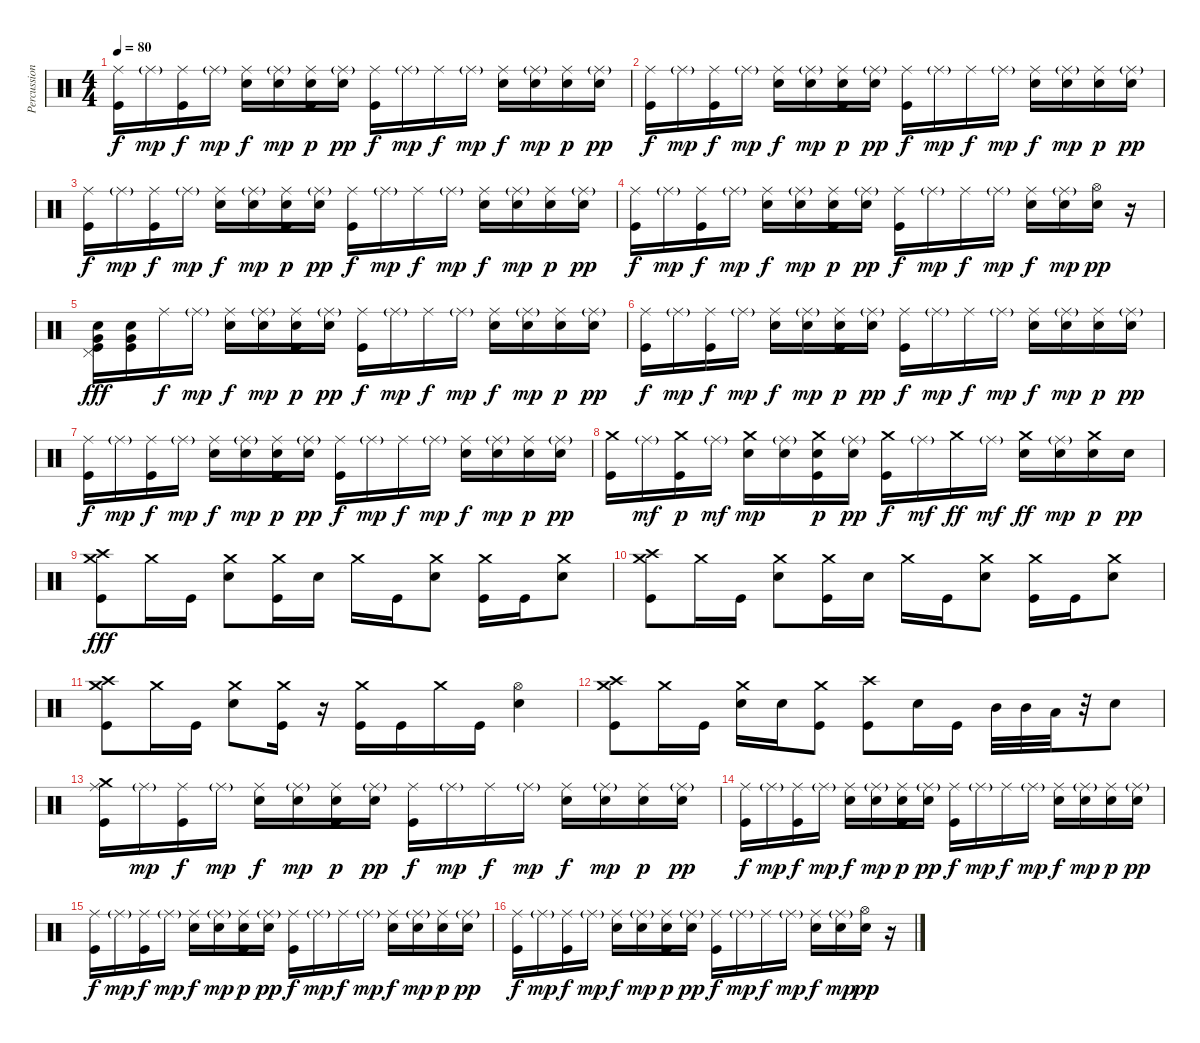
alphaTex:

\track ("Percussion" "Percussion") {instrument percussion}
\staff {score}
\articulation defaults
\ts (4 4)
\tempo 80
\clef neutral
\ks c
("Ride (middle)" "Kick (hit)").16{dy f} "Ride (middle)"{g}.16{dy mp} ("Ride (middle)" "Kick (hit)").16{dy f} "Ride (middle)"{g}.16{dy mp} ("Ride (middle)" "Electric Snare (hit)").16{dy f} ("Ride (middle)"{g} "Electric Snare (hit)").16{dy mp} ("Ride (middle)" "Electric Snare (hit)" "Kick (hit)").16{dy p} ("Ride (middle)"{g} "Electric Snare (hit)").16{dy pp} ("Ride (middle)" "Kick (hit)").16{dy f} "Ride (middle)"{g}.16{dy mp} "Ride (middle)".16{dy f} "Ride (middle)"{g}.16{dy mp} ("Ride (middle)" "Electric Snare (hit)").16{dy f} ("Ride (middle)"{g} "Electric Snare (hit)").16{dy mp} ("Ride (middle)" "Electric Snare (hit)").16{dy p} ("Ride (middle)"{g} "Electric Snare (hit)").16{dy pp} |
("Ride (middle)" "Kick (hit)").16{dy f} "Ride (middle)"{g}.16{dy mp} ("Ride (middle)" "Kick (hit)").16{dy f} "Ride (middle)"{g}.16{dy mp} ("Ride (middle)" "Electric Snare (hit)").16{dy f} ("Ride (middle)"{g} "Electric Snare (hit)").16{dy mp} ("Ride (middle)" "Electric Snare (hit)" "Kick (hit)").16{dy p} ("Ride (middle)"{g} "Electric Snare (hit)").16{dy pp} ("Ride (middle)" "Kick (hit)").16{dy f} "Ride (middle)"{g}.16{dy mp} "Ride (middle)".16{dy f} "Ride (middle)"{g}.16{dy mp} ("Ride (middle)" "Electric Snare (hit)").16{dy f} ("Ride (middle)"{g} "Electric Snare (hit)").16{dy mp} ("Ride (middle)" "Electric Snare (hit)").16{dy p} ("Ride (middle)"{g} "Electric Snare (hit)").16{dy pp} |
("Ride (middle)" "Kick (hit)").16{dy f} "Ride (middle)"{g}.16{dy mp} ("Ride (middle)" "Kick (hit)").16{dy f} "Ride (middle)"{g}.16{dy mp} ("Ride (middle)" "Electric Snare (hit)").16{dy f} ("Ride (middle)"{g} "Electric Snare (hit)").16{dy mp} ("Ride (middle)" "Electric Snare (hit)" "Kick (hit)").16{dy p} ("Ride (middle)"{g} "Electric Snare (hit)").16{dy pp} ("Ride (middle)" "Kick (hit)").16{dy f} "Ride (middle)"{g}.16{dy mp} "Ride (middle)".16{dy f} "Ride (middle)"{g}.16{dy mp} ("Ride (middle)" "Electric Snare (hit)").16{dy f} ("Ride (middle)"{g} "Electric Snare (hit)").16{dy mp} ("Ride (middle)" "Electric Snare (hit)").16{dy p} ("Ride (middle)"{g} "Electric Snare (hit)").16{dy pp} |
("Ride (middle)" "Kick (hit)").16{dy f} "Ride (middle)"{g}.16{dy mp} ("Ride (middle)" "Kick (hit)").16{dy f} "Ride (middle)"{g}.16{dy mp} ("Ride (middle)" "Electric Snare (hit)").16{dy f} ("Ride (middle)"{g} "Electric Snare (hit)").16{dy mp} ("Ride (middle)" "Electric Snare (hit)" "Kick (hit)").16{dy p} ("Ride (middle)"{g} "Electric Snare (hit)").16{dy pp} ("Ride (middle)" "Kick (hit)").16{dy f} "Ride (middle)"{g}.16{dy mp} "Ride (middle)".16{dy f} "Ride (middle)"{g}.16{dy mp} ("Ride (middle)" "Electric Snare (hit)").16{dy f} ("Ride (middle)"{g} "Electric Snare (hit)").16{dy mp} ("Hi-Hat (open)" "Electric Snare (hit)").16{dy pp} r.16 |
("Pedal Hi-Hat (hit)" "Very Low Tom (hit)" "Electric Snare (hit)" "Kick (hit)").16{dy fff} ("Very Low Tom (hit)" "Electric Snare (hit)" "Kick (hit)").16 "Ride (middle)".16{dy f} "Ride (middle)"{g}.16{dy mp} ("Ride (middle)" "Electric Snare (hit)").16{dy f} ("Ride (middle)"{g} "Electric Snare (hit)").16{dy mp} ("Ride (middle)" "Electric Snare (hit)" "Kick (hit)").16{dy p} ("Ride (middle)"{g} "Electric Snare (hit)").16{dy pp} ("Ride (middle)" "Kick (hit)").16{dy f} "Ride (middle)"{g}.16{dy mp} "Ride (middle)".16{dy f} "Ride (middle)"{g}.16{dy mp} ("Ride (middle)" "Electric Snare (hit)").16{dy f} ("Ride (middle)"{g} "Electric Snare (hit)").16{dy mp} ("Ride (middle)" "Electric Snare (hit)").16{dy p} ("Ride (middle)"{g} "Electric Snare (hit)").16{dy pp} |
("Ride (middle)" "Kick (hit)").16{dy f} "Ride (middle)"{g}.16{dy mp} ("Ride (middle)" "Kick (hit)").16{dy f} "Ride (middle)"{g}.16{dy mp} ("Ride (middle)" "Electric Snare (hit)").16{dy f} ("Ride (middle)"{g} "Electric Snare (hit)").16{dy mp} ("Ride (middle)" "Electric Snare (hit)" "Kick (hit)").16{dy p} ("Ride (middle)"{g} "Electric Snare (hit)").16{dy pp} ("Ride (middle)" "Kick (hit)").16{dy f} "Ride (middle)"{g}.16{dy mp} "Ride (middle)".16{dy f} "Ride (middle)"{g}.16{dy mp} ("Ride (middle)" "Electric Snare (hit)").16{dy f} ("Ride (middle)"{g} "Electric Snare (hit)").16{dy mp} ("Ride (middle)" "Electric Snare (hit)").16{dy p} ("Ride (middle)"{g} "Electric Snare (hit)").16{dy pp} |
("Ride (middle)" "Kick (hit)").16{dy f} "Ride (middle)"{g}.16{dy mp} ("Ride (middle)" "Kick (hit)").16{dy f} "Ride (middle)"{g}.16{dy mp} ("Ride (middle)" "Electric Snare (hit)").16{dy f} ("Ride (middle)"{g} "Electric Snare (hit)").16{dy mp} ("Ride (middle)" "Electric Snare (hit)" "Kick (hit)").16{dy p} ("Ride (middle)"{g} "Electric Snare (hit)").16{dy pp} ("Ride (middle)" "Kick (hit)").16{dy f} "Ride (middle)"{g}.16{dy mp} "Ride (middle)".16{dy f} "Ride (middle)"{g}.16{dy mp} ("Ride (middle)" "Electric Snare (hit)").16{dy f} ("Ride (middle)"{g} "Electric Snare (hit)").16{dy mp} ("Ride (middle)" "Electric Snare (hit)").16{dy p} ("Ride (middle)"{g} "Electric Snare (hit)").16{dy pp} |
("Crash medium (hit)" "Kick (hit)").16 "Ride (middle)"{g}.16{dy mf} ("Crash medium (hit)" "Kick (hit)").16{dy p} "Ride (middle)"{g}.16{dy mf} ("Crash medium (hit)" "Electric Snare (hit)").16{dy mp} ("Ride (middle)"{g} "Electric Snare (hit)").16 ("Crash medium (hit)" "Electric Snare (hit)" "Kick (hit)").16{dy p} ("Ride (middle)"{g} "Electric Snare (hit)").16{dy pp} ("Crash medium (hit)" "Kick (hit)").16{dy f} "Ride (middle)"{g}.16{dy mf} "Crash medium (hit)".16{dy ff} "Ride (middle)"{g}.16{dy mf} ("Crash medium (hit)" "Electric Snare (hit)").16{dy ff} ("Ride (middle)"{g} "Electric Snare (hit)").16{dy mp} ("Crash medium (hit)" "Electric Snare (hit)").16{dy p} "Electric Snare (hit)".16{dy pp} |
("Crash medium (hit)" "Crash high (hit)" "Kick (hit)").8{dy fff} "Crash medium (hit)".16 "Kick (hit)".16 ("Crash medium (hit)" "Electric Snare (hit)").8 ("Crash medium (hit)" "Kick (hit)").16 "Electric Snare (hit)".16 "Crash medium (hit)".16 "Kick (hit)".16 ("Crash medium (hit)" "Electric Snare (hit)").8 ("Crash medium (hit)" "Kick (hit)").16 "Kick (hit)".16 ("Crash medium (hit)" "Electric Snare (hit)").8 |
("Crash medium (hit)" "Crash high (hit)" "Kick (hit)").8 "Crash medium (hit)".16 "Kick (hit)".16 ("Crash medium (hit)" "Electric Snare (hit)").8 ("Crash medium (hit)" "Kick (hit)").16 "Electric Snare (hit)".16 "Crash medium (hit)".16 "Kick (hit)".16 ("Crash medium (hit)" "Electric Snare (hit)").8 ("Crash medium (hit)" "Kick (hit)").16 "Kick (hit)".16 ("Crash medium (hit)" "Electric Snare (hit)").8 |
("Crash medium (hit)" "Crash high (hit)" "Kick (hit)").8 "Crash medium (hit)".16 "Kick (hit)".16 ("Crash medium (hit)" "Electric Snare (hit)").8 ("Crash medium (hit)" "Kick (hit)").16 r.16 ("Crash medium (hit)" "Kick (hit)").16 "Kick (hit)".16 "Crash medium (hit)".16 "Kick (hit)".16 ("Hi-Hat (open)" "Electric Snare (hit)").4 |
("Crash medium (hit)" "Crash high (hit)" "Kick (hit)").8 "Crash medium (hit)".16 "Kick (hit)".16 ("Crash medium (hit)" "Electric Snare (hit)").16 "Electric Snare (hit)".16 ("Crash medium (hit)" "Kick (hit)").8 ("Crash high (hit)" "Kick (hit)").8 "Electric Snare (hit)".16 "Kick (hit)".16 "Mid Tom (hit)".32 "Mid Tom (hit)".32 "Low Tom (hit)".32 r.32 "Electric Snare (hit)".8 |
("Ride (middle)" "Crash medium (hit)" "Kick (hit)").16 "Ride (middle)"{g}.16{dy mp} ("Ride (middle)" "Kick (hit)").16{dy f} "Ride (middle)"{g}.16{dy mp} ("Ride (middle)" "Electric Snare (hit)").16{dy f} ("Ride (middle)"{g} "Electric Snare (hit)").16{dy mp} ("Ride (middle)" "Electric Snare (hit)" "Kick (hit)").16{dy p} ("Ride (middle)"{g} "Electric Snare (hit)").16{dy pp} ("Ride (middle)" "Kick (hit)").16{dy f} "Ride (middle)"{g}.16{dy mp} "Ride (middle)".16{dy f} "Ride (middle)"{g}.16{dy mp} ("Ride (middle)" "Electric Snare (hit)").16{dy f} ("Ride (middle)"{g} "Electric Snare (hit)").16{dy mp} ("Ride (middle)" "Electric Snare (hit)").16{dy p} ("Ride (middle)"{g} "Electric Snare (hit)").16{dy pp} |
("Ride (middle)" "Kick (hit)").16{dy f} "Ride (middle)"{g}.16{dy mp} ("Ride (middle)" "Kick (hit)").16{dy f} "Ride (middle)"{g}.16{dy mp} ("Ride (middle)" "Electric Snare (hit)").16{dy f} ("Ride (middle)"{g} "Electric Snare (hit)").16{dy mp} ("Ride (middle)" "Electric Snare (hit)" "Kick (hit)").16{dy p} ("Ride (middle)"{g} "Electric Snare (hit)").16{dy pp} ("Ride (middle)" "Kick (hit)").16{dy f} "Ride (middle)"{g}.16{dy mp} "Ride (middle)".16{dy f} "Ride (middle)"{g}.16{dy mp} ("Ride (middle)" "Electric Snare (hit)").16{dy f} ("Ride (middle)"{g} "Electric Snare (hit)").16{dy mp} ("Ride (middle)" "Electric Snare (hit)").16{dy p} ("Ride (middle)"{g} "Electric Snare (hit)").16{dy pp} |
("Ride (middle)" "Kick (hit)").16{dy f} "Ride (middle)"{g}.16{dy mp} ("Ride (middle)" "Kick (hit)").16{dy f} "Ride (middle)"{g}.16{dy mp} ("Ride (middle)" "Electric Snare (hit)").16{dy f} ("Ride (middle)"{g} "Electric Snare (hit)").16{dy mp} ("Ride (middle)" "Electric Snare (hit)" "Kick (hit)").16{dy p} ("Ride (middle)"{g} "Electric Snare (hit)").16{dy pp} ("Ride (middle)" "Kick (hit)").16{dy f} "Ride (middle)"{g}.16{dy mp} "Ride (middle)".16{dy f} "Ride (middle)"{g}.16{dy mp} ("Ride (middle)" "Electric Snare (hit)").16{dy f} ("Ride (middle)"{g} "Electric Snare (hit)").16{dy mp} ("Ride (middle)" "Electric Snare (hit)").16{dy p} ("Ride (middle)"{g} "Electric Snare (hit)").16{dy pp} |
("Ride (middle)" "Kick (hit)").16{dy f} "Ride (middle)"{g}.16{dy mp} ("Ride (middle)" "Kick (hit)").16{dy f} "Ride (middle)"{g}.16{dy mp} ("Ride (middle)" "Electric Snare (hit)").16{dy f} ("Ride (middle)"{g} "Electric Snare (hit)").16{dy mp} ("Ride (middle)" "Electric Snare (hit)" "Kick (hit)").16{dy p} ("Ride (middle)"{g} "Electric Snare (hit)").16{dy pp} ("Ride (middle)" "Kick (hit)").16{dy f} "Ride (middle)"{g}.16{dy mp} "Ride (middle)".16{dy f} "Ride (middle)"{g}.16{dy mp} ("Ride (middle)" "Electric Snare (hit)").16{dy f} ("Ride (middle)"{g} "Electric Snare (hit)").16{dy mp} ("Hi-Hat (open)" "Electric Snare (hit)").16{dy pp} r.16
